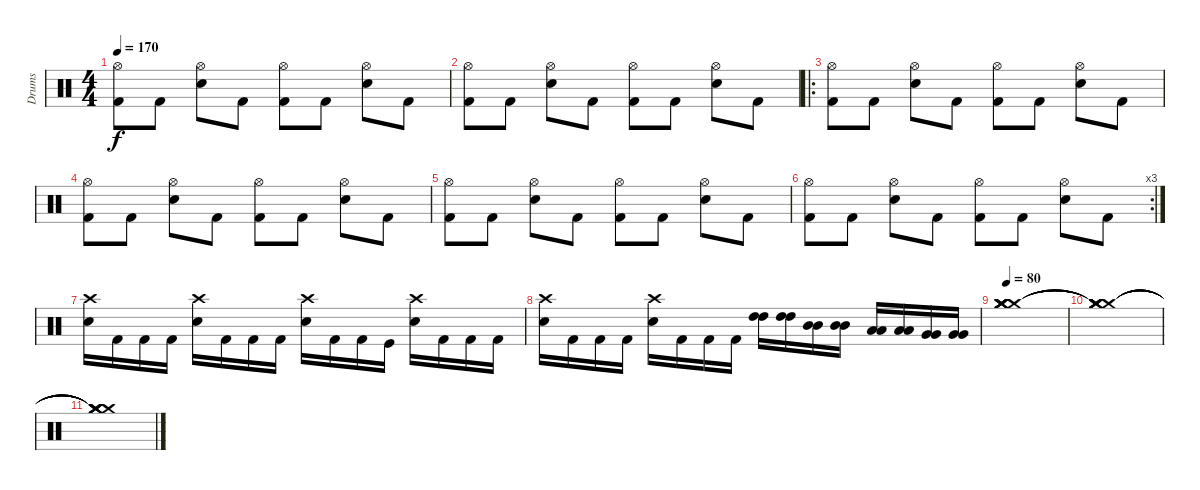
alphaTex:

\track ("Drums" "Drums") {instrument percussion}
\staff {score}
\articulation defaults
\ts (4 4)
\tempo 170
\clef neutral
\ks c
("Hi-Hat (open)" "Kick (hit) 2").8{dy f} "Kick (hit) 2".8 ("Hi-Hat (open)" "Snare (hit) 2").8 "Kick (hit) 2".8 ("Hi-Hat (open)" "Kick (hit) 2").8 "Kick (hit) 2".8 ("Hi-Hat (open)" "Snare (hit) 2").8 "Kick (hit) 2".8 |
("Hi-Hat (open)" "Kick (hit) 2").8 "Kick (hit) 2".8 ("Hi-Hat (open)" "Snare (hit) 2").8 "Kick (hit) 2".8 ("Hi-Hat (open)" "Kick (hit) 2").8 "Kick (hit) 2".8 ("Hi-Hat (open)" "Snare (hit) 2").8 "Kick (hit) 2".8 |
\ro
("Hi-Hat (open)" "Kick (hit) 2").8 "Kick (hit) 2".8 ("Hi-Hat (open)" "Snare (hit) 2").8 "Kick (hit) 2".8 ("Hi-Hat (open)" "Kick (hit) 2").8 "Kick (hit) 2".8 ("Hi-Hat (open)" "Snare (hit) 2").8 "Kick (hit) 2".8 |
("Hi-Hat (open)" "Kick (hit) 2").8 "Kick (hit) 2".8 ("Hi-Hat (open)" "Snare (hit) 2").8 "Kick (hit) 2".8 ("Hi-Hat (open)" "Kick (hit) 2").8 "Kick (hit) 2".8 ("Hi-Hat (open)" "Snare (hit) 2").8 "Kick (hit) 2".8 |
("Hi-Hat (open)" "Kick (hit) 2").8 "Kick (hit) 2".8 ("Hi-Hat (open)" "Snare (hit) 2").8 "Kick (hit) 2".8 ("Hi-Hat (open)" "Kick (hit) 2").8 "Kick (hit) 2".8 ("Hi-Hat (open)" "Snare (hit) 2").8 "Kick (hit) 2".8 |
\rc 3
("Hi-Hat (open)" "Kick (hit) 2").8 "Kick (hit) 2".8 ("Hi-Hat (open)" "Snare (hit) 2").8 "Kick (hit) 2".8 ("Hi-Hat (open)" "Kick (hit) 2").8 "Kick (hit) 2".8 ("Hi-Hat (open)" "Snare (hit) 2").8 "Kick (hit) 2".8 |
("Crash high (hit)" "Snare (hit) 2").16 "Kick (hit) 2".16 "Kick (hit) 2".16 "Kick (hit) 2".16 ("Crash high (hit)" "Snare (hit) 2").16 "Kick (hit) 2".16 "Kick (hit) 2".16 "Kick (hit) 2".16 ("Crash high (hit)" "Snare (hit) 2").16 "Kick (hit) 2".16 "Kick (hit) 2".16 "Kick (hit)".16 ("Crash high (hit)" "Snare (hit) 2").16 "Kick (hit) 2".16 "Kick (hit) 2".16 "Kick (hit) 2".16 |
("Crash high (hit)" "Snare (hit) 2").16 "Kick (hit) 2".16 "Kick (hit) 2".16 "Kick (hit) 2".16 ("Crash high (hit)" "Snare (hit) 2").16 "Kick (hit) 2".16 "Kick (hit) 2".16 "Kick (hit) 2".16 ("High Tom (hit)" "High Tom (hit)").16 ("High Tom (hit)" "High Tom (hit)").16 ("Mid Tom (hit)" "Mid Tom (hit)").16 ("Mid Tom (hit)" "Mid Tom (hit)").16 ("Low Tom (hit)" "Low Tom (hit)").16 ("Low Tom (hit)" "Low Tom (hit)").16 ("Very Low Tom (hit)" "Very Low Tom (hit)").16 ("Very Low Tom (hit)" "Very Low Tom (hit)").16 |
\tempo 80
("Crash medium (hit)" "Crash medium (hit)" "Crash medium (hit)" "Crash medium (hit)" "Crash medium (hit)" "Crash medium (hit)").1 |
("Crash medium (hit)"{t} "Crash medium (hit)"{t} "Crash medium (hit)"{t} "Crash medium (hit)"{t} "Crash medium (hit)"{t} "Crash medium (hit)"{t}).1 |
("Crash medium (hit)"{t} "Crash medium (hit)"{t} "Crash medium (hit)"{t} "Crash medium (hit)"{t} "Crash medium (hit)"{t} "Crash medium (hit)"{t}).1
